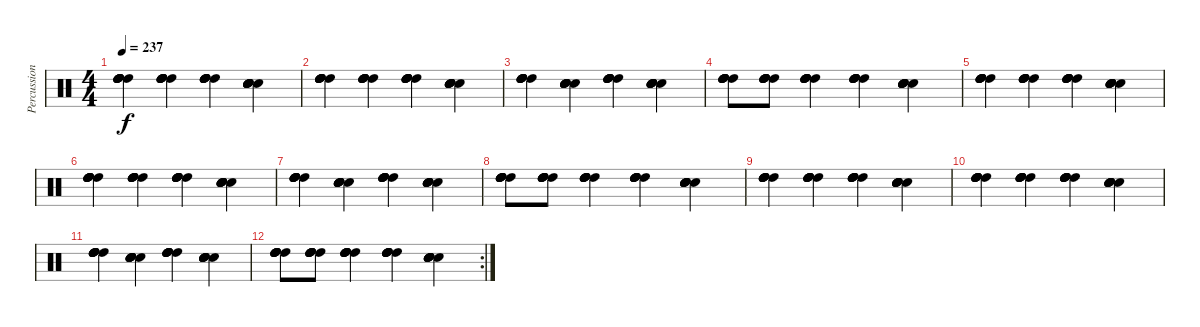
\track ("Percussions" "Percussion") {instrument percussion}
\staff {score}
\articulation defaults
\ts (4 4)
\tempo 237
\clef neutral
\ks c
("High Tom (hit)" "High Tom (hit)" "High Tom (hit)" "High Tom (hit)" "High Tom (hit)" "High Tom (hit)").4{dy f} ("High Tom (hit)" "High Tom (hit)" "High Tom (hit)" "High Tom (hit)" "High Tom (hit)" "High Tom (hit)").4 ("High Tom (hit)" "High Tom (hit)" "High Tom (hit)" "High Tom (hit)" "High Tom (hit)" "High Tom (hit)").4 ("Electric Snare (hit)" "Electric Snare (hit)" "Electric Snare (hit)" "Electric Snare (hit)" "Electric Snare (hit)" "Electric Snare (hit)").4 |
("High Tom (hit)" "High Tom (hit)" "High Tom (hit)" "High Tom (hit)" "High Tom (hit)" "High Tom (hit)").4 ("High Tom (hit)" "High Tom (hit)" "High Tom (hit)" "High Tom (hit)" "High Tom (hit)" "High Tom (hit)").4 ("High Tom (hit)" "High Tom (hit)" "High Tom (hit)" "High Tom (hit)" "High Tom (hit)" "High Tom (hit)").4 ("Electric Snare (hit)" "Electric Snare (hit)" "Electric Snare (hit)" "Electric Snare (hit)" "Electric Snare (hit)" "Electric Snare (hit)").4 |
("High Tom (hit)" "High Tom (hit)" "High Tom (hit)" "High Tom (hit)" "High Tom (hit)" "High Tom (hit)").4 ("Electric Snare (hit)" "Electric Snare (hit)" "Electric Snare (hit)" "Electric Snare (hit)" "Electric Snare (hit)" "Electric Snare (hit)").4 ("High Tom (hit)" "High Tom (hit)" "High Tom (hit)" "High Tom (hit)" "High Tom (hit)" "High Tom (hit)").4 ("Electric Snare (hit)" "Electric Snare (hit)" "Electric Snare (hit)" "Electric Snare (hit)" "Electric Snare (hit)" "Electric Snare (hit)").4 |
("High Tom (hit)" "High Tom (hit)" "High Tom (hit)" "High Tom (hit)" "High Tom (hit)" "High Tom (hit)").8 ("High Tom (hit)" "High Tom (hit)" "High Tom (hit)" "High Tom (hit)" "High Tom (hit)" "High Tom (hit)").8 ("High Tom (hit)" "High Tom (hit)" "High Tom (hit)" "High Tom (hit)" "High Tom (hit)" "High Tom (hit)").4 ("High Tom (hit)" "High Tom (hit)" "High Tom (hit)" "High Tom (hit)" "High Tom (hit)" "High Tom (hit)").4 ("Electric Snare (hit)" "Electric Snare (hit)" "Electric Snare (hit)" "Electric Snare (hit)" "Electric Snare (hit)" "Electric Snare (hit)").4 |
("High Tom (hit)" "High Tom (hit)" "High Tom (hit)" "High Tom (hit)" "High Tom (hit)" "High Tom (hit)").4 ("High Tom (hit)" "High Tom (hit)" "High Tom (hit)" "High Tom (hit)" "High Tom (hit)" "High Tom (hit)").4 ("High Tom (hit)" "High Tom (hit)" "High Tom (hit)" "High Tom (hit)" "High Tom (hit)" "High Tom (hit)").4 ("Electric Snare (hit)" "Electric Snare (hit)" "Electric Snare (hit)" "Electric Snare (hit)" "Electric Snare (hit)" "Electric Snare (hit)").4 |
("High Tom (hit)" "High Tom (hit)" "High Tom (hit)" "High Tom (hit)" "High Tom (hit)" "High Tom (hit)").4 ("High Tom (hit)" "High Tom (hit)" "High Tom (hit)" "High Tom (hit)" "High Tom (hit)" "High Tom (hit)").4 ("High Tom (hit)" "High Tom (hit)" "High Tom (hit)" "High Tom (hit)" "High Tom (hit)" "High Tom (hit)").4 ("Electric Snare (hit)" "Electric Snare (hit)" "Electric Snare (hit)" "Electric Snare (hit)" "Electric Snare (hit)" "Electric Snare (hit)").4 |
("High Tom (hit)" "High Tom (hit)" "High Tom (hit)" "High Tom (hit)" "High Tom (hit)" "High Tom (hit)").4 ("Electric Snare (hit)" "Electric Snare (hit)" "Electric Snare (hit)" "Electric Snare (hit)" "Electric Snare (hit)" "Electric Snare (hit)").4 ("High Tom (hit)" "High Tom (hit)" "High Tom (hit)" "High Tom (hit)" "High Tom (hit)" "High Tom (hit)").4 ("Electric Snare (hit)" "Electric Snare (hit)" "Electric Snare (hit)" "Electric Snare (hit)" "Electric Snare (hit)" "Electric Snare (hit)").4 |
("High Tom (hit)" "High Tom (hit)" "High Tom (hit)" "High Tom (hit)" "High Tom (hit)" "High Tom (hit)").8 ("High Tom (hit)" "High Tom (hit)" "High Tom (hit)" "High Tom (hit)" "High Tom (hit)" "High Tom (hit)").8 ("High Tom (hit)" "High Tom (hit)" "High Tom (hit)" "High Tom (hit)" "High Tom (hit)" "High Tom (hit)").4 ("High Tom (hit)" "High Tom (hit)" "High Tom (hit)" "High Tom (hit)" "High Tom (hit)" "High Tom (hit)").4 ("Electric Snare (hit)" "Electric Snare (hit)" "Electric Snare (hit)" "Electric Snare (hit)" "Electric Snare (hit)" "Electric Snare (hit)").4 |
("High Tom (hit)" "High Tom (hit)" "High Tom (hit)" "High Tom (hit)" "High Tom (hit)" "High Tom (hit)").4 ("High Tom (hit)" "High Tom (hit)" "High Tom (hit)" "High Tom (hit)" "High Tom (hit)" "High Tom (hit)").4 ("High Tom (hit)" "High Tom (hit)" "High Tom (hit)" "High Tom (hit)" "High Tom (hit)" "High Tom (hit)").4 ("Electric Snare (hit)" "Electric Snare (hit)" "Electric Snare (hit)" "Electric Snare (hit)" "Electric Snare (hit)" "Electric Snare (hit)").4 |
("High Tom (hit)" "High Tom (hit)" "High Tom (hit)" "High Tom (hit)" "High Tom (hit)" "High Tom (hit)").4 ("High Tom (hit)" "High Tom (hit)" "High Tom (hit)" "High Tom (hit)" "High Tom (hit)" "High Tom (hit)").4 ("High Tom (hit)" "High Tom (hit)" "High Tom (hit)" "High Tom (hit)" "High Tom (hit)" "High Tom (hit)").4 ("Electric Snare (hit)" "Electric Snare (hit)" "Electric Snare (hit)" "Electric Snare (hit)" "Electric Snare (hit)" "Electric Snare (hit)").4 |
("High Tom (hit)" "High Tom (hit)" "High Tom (hit)" "High Tom (hit)" "High Tom (hit)" "High Tom (hit)").4 ("Electric Snare (hit)" "Electric Snare (hit)" "Electric Snare (hit)" "Electric Snare (hit)" "Electric Snare (hit)" "Electric Snare (hit)").4 ("High Tom (hit)" "High Tom (hit)" "High Tom (hit)" "High Tom (hit)" "High Tom (hit)" "High Tom (hit)").4 ("Electric Snare (hit)" "Electric Snare (hit)" "Electric Snare (hit)" "Electric Snare (hit)" "Electric Snare (hit)" "Electric Snare (hit)").4 |
\rc 2
("High Tom (hit)" "High Tom (hit)" "High Tom (hit)" "High Tom (hit)" "High Tom (hit)" "High Tom (hit)").8 ("High Tom (hit)" "High Tom (hit)" "High Tom (hit)" "High Tom (hit)" "High Tom (hit)" "High Tom (hit)").8 ("High Tom (hit)" "High Tom (hit)" "High Tom (hit)" "High Tom (hit)" "High Tom (hit)" "High Tom (hit)").4 ("High Tom (hit)" "High Tom (hit)" "High Tom (hit)" "High Tom (hit)" "High Tom (hit)" "High Tom (hit)").4 ("Electric Snare (hit)" "Electric Snare (hit)" "Electric Snare (hit)" "Electric Snare (hit)" "Electric Snare (hit)" "Electric Snare (hit)").4
